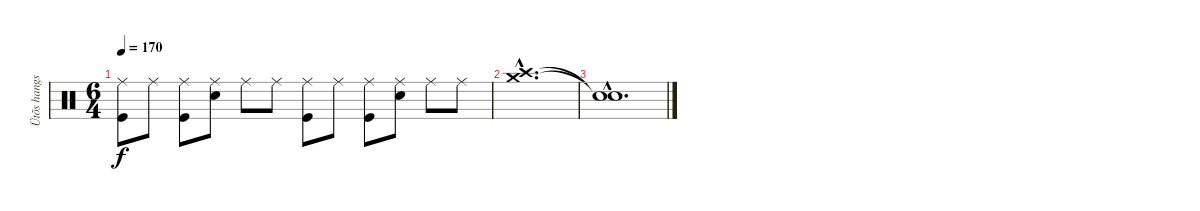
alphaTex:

\track ("Ütõs hangszer" "Ütõs hangs") {instrument percussion}
\staff {score}
\articulation defaults
\ts (6 4)
\tempo 170
\clef neutral
\ks c
("Ride (middle)" "Kick (hit)").8{dy f} "Ride (middle)".8 ("Ride (middle)" "Kick (hit)").8 ("Ride (middle)" "Snare (hit) 2").8 "Ride (middle)".8 "Ride (middle)".8 ("Ride (middle)" "Kick (hit)").8 "Ride (middle)".8 ("Ride (middle)" "Kick (hit)").8 ("Ride (middle)" "Snare (hit) 2").8 "Ride (middle)".8 "Ride (middle)".8 |
("Crash high (hit)"{hac} "Crash medium (hit)"{hac}).1{d} |
("Snare (hit)"{hac t} "Snare (hit)"{hac t}).1{d}
